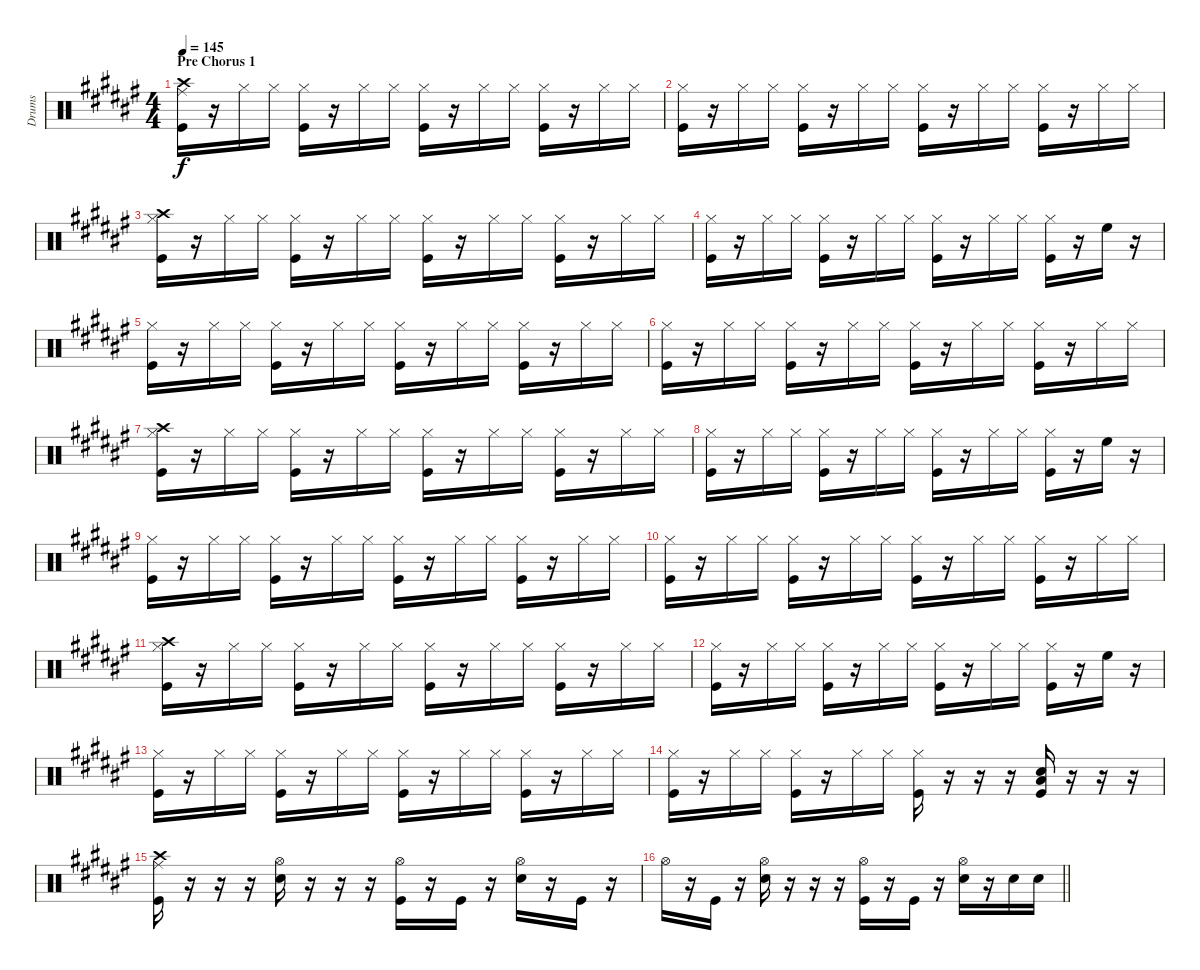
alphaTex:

\track ("Drums" "Drums") {instrument percussion}
\staff {score}
\articulation defaults
\ts (4 4)
\section ("" "Pre Chorus 1")
\tempo 145
\clef neutral
\ks f#
("Crash high (hit)" "Kick (hit)" "Ride (middle)").16{dy f} r.16 "Hi-Hat (closed)".16 "Hi-Hat (closed)".16 ("Hi-Hat (closed)" "Kick (hit)").16 r.16 "Hi-Hat (closed)".16 "Hi-Hat (closed)".16 ("Hi-Hat (closed)" "Kick (hit)").16 r.16 "Hi-Hat (closed)".16 "Hi-Hat (closed)".16 ("Hi-Hat (closed)" "Kick (hit)").16 r.16 "Hi-Hat (closed)".16 "Hi-Hat (closed)".16 |
("Hi-Hat (closed)" "Kick (hit)").16 r.16 "Hi-Hat (closed)".16 "Hi-Hat (closed)".16 ("Hi-Hat (closed)" "Kick (hit)").16 r.16 "Hi-Hat (closed)".16 "Hi-Hat (closed)".16 ("Hi-Hat (closed)" "Kick (hit)").16 r.16 "Hi-Hat (closed)".16 "Hi-Hat (closed)".16 ("Hi-Hat (closed)" "Kick (hit)").16 r.16 "Hi-Hat (closed)".16 "Hi-Hat (closed)".16 |
("Hi-Hat (closed)" "Kick (hit)" "Crash high (hit)").16 r.16 "Hi-Hat (closed)".16 "Hi-Hat (closed)".16 ("Hi-Hat (closed)" "Kick (hit)").16 r.16 "Hi-Hat (closed)".16 "Hi-Hat (closed)".16 ("Hi-Hat (closed)" "Kick (hit)").16 r.16 "Hi-Hat (closed)".16 "Hi-Hat (closed)".16 ("Hi-Hat (closed)" "Kick (hit)").16 r.16 "Hi-Hat (closed)".16 "Hi-Hat (closed)".16 |
("Hi-Hat (closed)" "Kick (hit)").16 r.16 "Hi-Hat (closed)".16 "Hi-Hat (closed)".16 ("Hi-Hat (closed)" "Kick (hit)").16 r.16 "Hi-Hat (closed)".16 "Hi-Hat (closed)".16 ("Hi-Hat (closed)" "Kick (hit)").16 r.16 "Hi-Hat (closed)".16 "Hi-Hat (closed)".16 ("Hi-Hat (closed)" "Kick (hit)").16 r.16 "High Floor Tom (hit)".16 r.16 |
("Hi-Hat (closed)" "Kick (hit)").16 r.16 "Hi-Hat (closed)".16 "Hi-Hat (closed)".16 ("Hi-Hat (closed)" "Kick (hit)").16 r.16 "Hi-Hat (closed)".16 "Hi-Hat (closed)".16 ("Hi-Hat (closed)" "Kick (hit)").16 r.16 "Hi-Hat (closed)".16 "Hi-Hat (closed)".16 ("Hi-Hat (closed)" "Kick (hit)").16 r.16 "Hi-Hat (closed)".16 "Hi-Hat (closed)".16 |
("Hi-Hat (closed)" "Kick (hit)").16 r.16 "Hi-Hat (closed)".16 "Hi-Hat (closed)".16 ("Hi-Hat (closed)" "Kick (hit)").16 r.16 "Hi-Hat (closed)".16 "Hi-Hat (closed)".16 ("Hi-Hat (closed)" "Kick (hit)").16 r.16 "Hi-Hat (closed)".16 "Hi-Hat (closed)".16 ("Hi-Hat (closed)" "Kick (hit)").16 r.16 "Hi-Hat (closed)".16 "Hi-Hat (closed)".16 |
("Hi-Hat (closed)" "Kick (hit)" "Crash high (hit)").16 r.16 "Hi-Hat (closed)".16 "Hi-Hat (closed)".16 ("Hi-Hat (closed)" "Kick (hit)").16 r.16 "Hi-Hat (closed)".16 "Hi-Hat (closed)".16 ("Hi-Hat (closed)" "Kick (hit)").16 r.16 "Hi-Hat (closed)".16 "Hi-Hat (closed)".16 ("Hi-Hat (closed)" "Kick (hit)").16 r.16 "Hi-Hat (closed)".16 "Hi-Hat (closed)".16 |
("Hi-Hat (closed)" "Kick (hit)").16 r.16 "Hi-Hat (closed)".16 "Hi-Hat (closed)".16 ("Hi-Hat (closed)" "Kick (hit)").16 r.16 "Hi-Hat (closed)".16 "Hi-Hat (closed)".16 ("Hi-Hat (closed)" "Kick (hit)").16 r.16 "Hi-Hat (closed)".16 "Hi-Hat (closed)".16 ("Hi-Hat (closed)" "Kick (hit)").16 r.16 "High Floor Tom (hit)".16 r.16 |
("Hi-Hat (closed)" "Kick (hit)").16 r.16 "Hi-Hat (closed)".16 "Hi-Hat (closed)".16 ("Hi-Hat (closed)" "Kick (hit)").16 r.16 "Hi-Hat (closed)".16 "Hi-Hat (closed)".16 ("Hi-Hat (closed)" "Kick (hit)").16 r.16 "Hi-Hat (closed)".16 "Hi-Hat (closed)".16 ("Hi-Hat (closed)" "Kick (hit)").16 r.16 "Hi-Hat (closed)".16 "Hi-Hat (closed)".16 |
("Hi-Hat (closed)" "Kick (hit)").16 r.16 "Hi-Hat (closed)".16 "Hi-Hat (closed)".16 ("Hi-Hat (closed)" "Kick (hit)").16 r.16 "Hi-Hat (closed)".16 "Hi-Hat (closed)".16 ("Hi-Hat (closed)" "Kick (hit)").16 r.16 "Hi-Hat (closed)".16 "Hi-Hat (closed)".16 ("Hi-Hat (closed)" "Kick (hit)").16 r.16 "Hi-Hat (closed)".16 "Hi-Hat (closed)".16 |
("Hi-Hat (closed)" "Kick (hit)" "Crash high (hit)").16 r.16 "Hi-Hat (closed)".16 "Hi-Hat (closed)".16 ("Hi-Hat (closed)" "Kick (hit)").16 r.16 "Hi-Hat (closed)".16 "Hi-Hat (closed)".16 ("Hi-Hat (closed)" "Kick (hit)").16 r.16 "Hi-Hat (closed)".16 "Hi-Hat (closed)".16 ("Hi-Hat (closed)" "Kick (hit)").16 r.16 "Hi-Hat (closed)".16 "Hi-Hat (closed)".16 |
("Hi-Hat (closed)" "Kick (hit)").16 r.16 "Hi-Hat (closed)".16 "Hi-Hat (closed)".16 ("Hi-Hat (closed)" "Kick (hit)").16 r.16 "Hi-Hat (closed)".16 "Hi-Hat (closed)".16 ("Hi-Hat (closed)" "Kick (hit)").16 r.16 "Hi-Hat (closed)".16 "Hi-Hat (closed)".16 ("Hi-Hat (closed)" "Kick (hit)").16 r.16 "High Floor Tom (hit)".16 r.16 |
("Hi-Hat (closed)" "Kick (hit)").16 r.16 "Hi-Hat (closed)".16 "Hi-Hat (closed)".16 ("Hi-Hat (closed)" "Kick (hit)").16 r.16 "Hi-Hat (closed)".16 "Hi-Hat (closed)".16 ("Hi-Hat (closed)" "Kick (hit)").16 r.16 "Hi-Hat (closed)".16 "Hi-Hat (closed)".16 ("Hi-Hat (closed)" "Kick (hit)").16 r.16 "Hi-Hat (closed)".16 "Hi-Hat (closed)".16 |
("Hi-Hat (closed)" "Kick (hit)").16 r.16 "Hi-Hat (closed)".16 "Hi-Hat (closed)".16 ("Hi-Hat (closed)" "Kick (hit)").16 r.16 "Hi-Hat (closed)".16 "Hi-Hat (closed)".16 ("Hi-Hat (closed)" "Kick (hit)").16 r.16 r.16 r.16 ("Snare (hit) 2" "Kick (hit)" "Low Floor Tom (hit)").16 r.16 r.16 r.16 |
("Ride (middle)" "Kick (hit)" "Crash high (hit)").16 r.16 r.16 r.16 ("Hi-Hat (open)" "Snare (hit) 2").16 r.16 r.16 r.16 ("Hi-Hat (open)" "Kick (hit)").16 r.16 "Kick (hit)".16 r.16 ("Hi-Hat (open)" "Snare (hit) 2").16 r.16 "Kick (hit)".16 r.16 |
\barLineRight lightlight "Hi-Hat (open)".16
r.16 "Kick (hit)".16 r.16 ("Hi-Hat (open)" "Snare (hit) 2").16 r.16 r.16 r.16 ("Hi-Hat (open)" "Kick (hit)").16 r.16 "Kick (hit)".16 r.16 ("Hi-Hat (open)" "Snare (hit) 2").16 r.16 "Snare (hit) 2".16 "Snare (hit) 2".16
